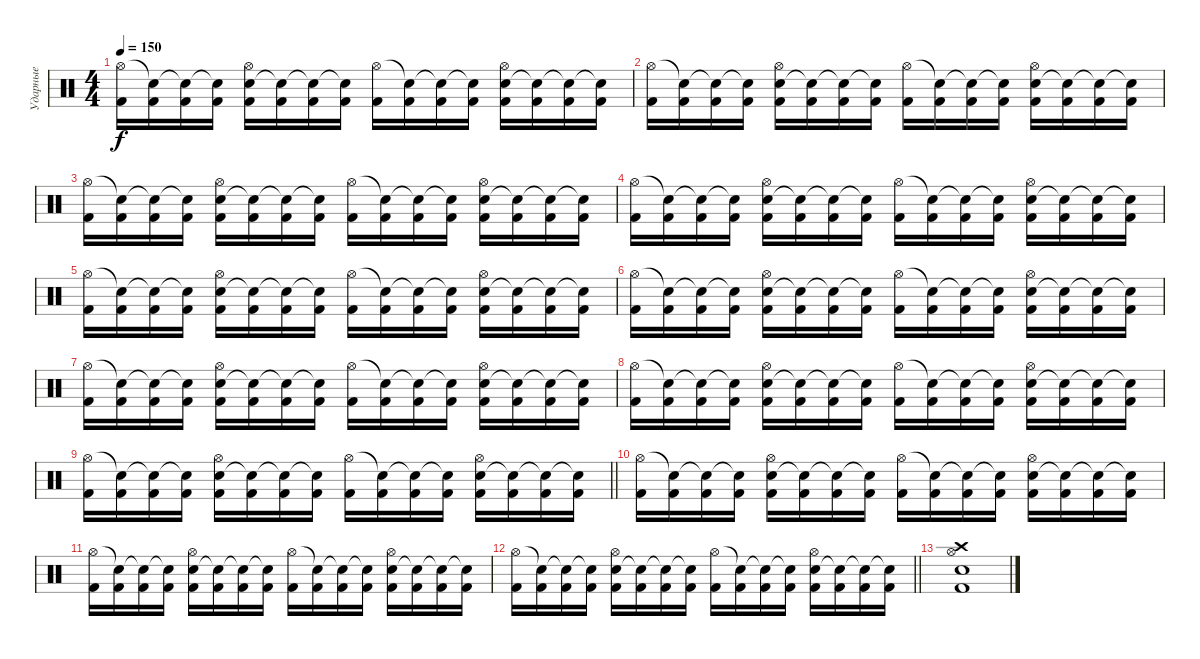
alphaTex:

\track ("Ударные" "Ударные") {instrument percussion}
\staff {score}
\articulation defaults
\ts (4 4)
\tempo 150
\clef neutral
\ks c
("Hi-Hat (open)" "Kick (hit) 2").16{dy f} ("Snare (hit)"{t} "Kick (hit) 2").16 ("Snare (hit)"{t} "Kick (hit) 2").16 ("Snare (hit)"{t} "Kick (hit) 2").16 ("Electric Snare (hit)" "Hi-Hat (open)" "Kick (hit) 2").16 ("Snare (hit)"{t} "Kick (hit) 2").16 ("Snare (hit)"{t} "Kick (hit) 2").16 ("Snare (hit)"{t} "Kick (hit) 2").16 ("Hi-Hat (open)" "Kick (hit) 2").16 ("Snare (hit)"{t} "Kick (hit) 2").16 ("Snare (hit)"{t} "Kick (hit) 2").16 ("Snare (hit)"{t} "Kick (hit) 2").16 ("Electric Snare (hit)" "Hi-Hat (open)" "Kick (hit) 2").16 ("Snare (hit)"{t} "Kick (hit) 2").16 ("Snare (hit)"{t} "Kick (hit) 2").16 ("Snare (hit)"{t} "Kick (hit) 2").16 |
("Hi-Hat (open)" "Kick (hit) 2").16 ("Snare (hit)"{t} "Kick (hit) 2").16 ("Snare (hit)"{t} "Kick (hit) 2").16 ("Snare (hit)"{t} "Kick (hit) 2").16 ("Electric Snare (hit)" "Hi-Hat (open)" "Kick (hit) 2").16 ("Snare (hit)"{t} "Kick (hit) 2").16 ("Snare (hit)"{t} "Kick (hit) 2").16 ("Snare (hit)"{t} "Kick (hit) 2").16 ("Hi-Hat (open)" "Kick (hit) 2").16 ("Snare (hit)"{t} "Kick (hit) 2").16 ("Snare (hit)"{t} "Kick (hit) 2").16 ("Snare (hit)"{t} "Kick (hit) 2").16 ("Electric Snare (hit)" "Hi-Hat (open)" "Kick (hit) 2").16 ("Snare (hit)"{t} "Kick (hit) 2").16 ("Snare (hit)"{t} "Kick (hit) 2").16 ("Snare (hit)"{t} "Kick (hit) 2").16 |
("Hi-Hat (open)" "Kick (hit) 2").16 ("Snare (hit)"{t} "Kick (hit) 2").16 ("Snare (hit)"{t} "Kick (hit) 2").16 ("Snare (hit)"{t} "Kick (hit) 2").16 ("Electric Snare (hit)" "Hi-Hat (open)" "Kick (hit) 2").16 ("Snare (hit)"{t} "Kick (hit) 2").16 ("Snare (hit)"{t} "Kick (hit) 2").16 ("Snare (hit)"{t} "Kick (hit) 2").16 ("Hi-Hat (open)" "Kick (hit) 2").16 ("Snare (hit)"{t} "Kick (hit) 2").16 ("Snare (hit)"{t} "Kick (hit) 2").16 ("Snare (hit)"{t} "Kick (hit) 2").16 ("Electric Snare (hit)" "Hi-Hat (open)" "Kick (hit) 2").16 ("Snare (hit)"{t} "Kick (hit) 2").16 ("Snare (hit)"{t} "Kick (hit) 2").16 ("Snare (hit)"{t} "Kick (hit) 2").16 |
("Hi-Hat (open)" "Kick (hit) 2").16 ("Snare (hit)"{t} "Kick (hit) 2").16 ("Snare (hit)"{t} "Kick (hit) 2").16 ("Snare (hit)"{t} "Kick (hit) 2").16 ("Electric Snare (hit)" "Hi-Hat (open)" "Kick (hit) 2").16 ("Snare (hit)"{t} "Kick (hit) 2").16 ("Snare (hit)"{t} "Kick (hit) 2").16 ("Snare (hit)"{t} "Kick (hit) 2").16 ("Hi-Hat (open)" "Kick (hit) 2").16 ("Snare (hit)"{t} "Kick (hit) 2").16 ("Snare (hit)"{t} "Kick (hit) 2").16 ("Snare (hit)"{t} "Kick (hit) 2").16 ("Electric Snare (hit)" "Hi-Hat (open)" "Kick (hit) 2").16 ("Snare (hit)"{t} "Kick (hit) 2").16 ("Snare (hit)"{t} "Kick (hit) 2").16 ("Snare (hit)"{t} "Kick (hit) 2").16 |
("Hi-Hat (open)" "Kick (hit) 2").16 ("Snare (hit)"{t} "Kick (hit) 2").16 ("Snare (hit)"{t} "Kick (hit) 2").16 ("Snare (hit)"{t} "Kick (hit) 2").16 ("Electric Snare (hit)" "Hi-Hat (open)" "Kick (hit) 2").16 ("Snare (hit)"{t} "Kick (hit) 2").16 ("Snare (hit)"{t} "Kick (hit) 2").16 ("Snare (hit)"{t} "Kick (hit) 2").16 ("Hi-Hat (open)" "Kick (hit) 2").16 ("Snare (hit)"{t} "Kick (hit) 2").16 ("Snare (hit)"{t} "Kick (hit) 2").16 ("Snare (hit)"{t} "Kick (hit) 2").16 ("Electric Snare (hit)" "Hi-Hat (open)" "Kick (hit) 2").16 ("Snare (hit)"{t} "Kick (hit) 2").16 ("Snare (hit)"{t} "Kick (hit) 2").16 ("Snare (hit)"{t} "Kick (hit) 2").16 |
("Hi-Hat (open)" "Kick (hit) 2").16 ("Snare (hit)"{t} "Kick (hit) 2").16 ("Snare (hit)"{t} "Kick (hit) 2").16 ("Snare (hit)"{t} "Kick (hit) 2").16 ("Electric Snare (hit)" "Hi-Hat (open)" "Kick (hit) 2").16 ("Snare (hit)"{t} "Kick (hit) 2").16 ("Snare (hit)"{t} "Kick (hit) 2").16 ("Snare (hit)"{t} "Kick (hit) 2").16 ("Hi-Hat (open)" "Kick (hit) 2").16 ("Snare (hit)"{t} "Kick (hit) 2").16 ("Snare (hit)"{t} "Kick (hit) 2").16 ("Snare (hit)"{t} "Kick (hit) 2").16 ("Electric Snare (hit)" "Hi-Hat (open)" "Kick (hit) 2").16 ("Snare (hit)"{t} "Kick (hit) 2").16 ("Snare (hit)"{t} "Kick (hit) 2").16 ("Snare (hit)"{t} "Kick (hit) 2").16 |
("Hi-Hat (open)" "Kick (hit) 2").16 ("Snare (hit)"{t} "Kick (hit) 2").16 ("Snare (hit)"{t} "Kick (hit) 2").16 ("Snare (hit)"{t} "Kick (hit) 2").16 ("Electric Snare (hit)" "Hi-Hat (open)" "Kick (hit) 2").16 ("Snare (hit)"{t} "Kick (hit) 2").16 ("Snare (hit)"{t} "Kick (hit) 2").16 ("Snare (hit)"{t} "Kick (hit) 2").16 ("Hi-Hat (open)" "Kick (hit) 2").16 ("Snare (hit)"{t} "Kick (hit) 2").16 ("Snare (hit)"{t} "Kick (hit) 2").16 ("Snare (hit)"{t} "Kick (hit) 2").16 ("Electric Snare (hit)" "Hi-Hat (open)" "Kick (hit) 2").16 ("Snare (hit)"{t} "Kick (hit) 2").16 ("Snare (hit)"{t} "Kick (hit) 2").16 ("Snare (hit)"{t} "Kick (hit) 2").16 |
("Hi-Hat (open)" "Kick (hit) 2").16 ("Snare (hit)"{t} "Kick (hit) 2").16 ("Snare (hit)"{t} "Kick (hit) 2").16 ("Snare (hit)"{t} "Kick (hit) 2").16 ("Electric Snare (hit)" "Hi-Hat (open)" "Kick (hit) 2").16 ("Snare (hit)"{t} "Kick (hit) 2").16 ("Snare (hit)"{t} "Kick (hit) 2").16 ("Snare (hit)"{t} "Kick (hit) 2").16 ("Hi-Hat (open)" "Kick (hit) 2").16 ("Snare (hit)"{t} "Kick (hit) 2").16 ("Snare (hit)"{t} "Kick (hit) 2").16 ("Snare (hit)"{t} "Kick (hit) 2").16 ("Electric Snare (hit)" "Hi-Hat (open)" "Kick (hit) 2").16 ("Snare (hit)"{t} "Kick (hit) 2").16 ("Snare (hit)"{t} "Kick (hit) 2").16 ("Snare (hit)"{t} "Kick (hit) 2").16 |
\barLineRight lightlight
("Hi-Hat (open)" "Kick (hit) 2").16 ("Snare (hit)"{t} "Kick (hit) 2").16 ("Snare (hit)"{t} "Kick (hit) 2").16 ("Snare (hit)"{t} "Kick (hit) 2").16 ("Electric Snare (hit)" "Hi-Hat (open)" "Kick (hit) 2").16 ("Snare (hit)"{t} "Kick (hit) 2").16 ("Snare (hit)"{t} "Kick (hit) 2").16 ("Snare (hit)"{t} "Kick (hit) 2").16 ("Hi-Hat (open)" "Kick (hit) 2").16 ("Snare (hit)"{t} "Kick (hit) 2").16 ("Snare (hit)"{t} "Kick (hit) 2").16 ("Snare (hit)"{t} "Kick (hit) 2").16 ("Electric Snare (hit)" "Hi-Hat (open)" "Kick (hit) 2").16 ("Snare (hit)"{t} "Kick (hit) 2").16 ("Snare (hit)"{t} "Kick (hit) 2").16 ("Snare (hit)"{t} "Kick (hit) 2").16 |
("Hi-Hat (open)" "Kick (hit) 2").16 ("Snare (hit)"{t} "Kick (hit) 2").16 ("Snare (hit)"{t} "Kick (hit) 2").16 ("Snare (hit)"{t} "Kick (hit) 2").16 ("Electric Snare (hit)" "Hi-Hat (open)" "Kick (hit) 2").16 ("Snare (hit)"{t} "Kick (hit) 2").16 ("Snare (hit)"{t} "Kick (hit) 2").16 ("Snare (hit)"{t} "Kick (hit) 2").16 ("Hi-Hat (open)" "Kick (hit) 2").16 ("Snare (hit)"{t} "Kick (hit) 2").16 ("Snare (hit)"{t} "Kick (hit) 2").16 ("Snare (hit)"{t} "Kick (hit) 2").16 ("Electric Snare (hit)" "Hi-Hat (open)" "Kick (hit) 2").16 ("Snare (hit)"{t} "Kick (hit) 2").16 ("Snare (hit)"{t} "Kick (hit) 2").16 ("Snare (hit)"{t} "Kick (hit) 2").16 |
("Hi-Hat (open)" "Kick (hit) 2").16 ("Snare (hit)"{t} "Kick (hit) 2").16 ("Snare (hit)"{t} "Kick (hit) 2").16 ("Snare (hit)"{t} "Kick (hit) 2").16 ("Electric Snare (hit)" "Hi-Hat (open)" "Kick (hit) 2").16 ("Snare (hit)"{t} "Kick (hit) 2").16 ("Snare (hit)"{t} "Kick (hit) 2").16 ("Snare (hit)"{t} "Kick (hit) 2").16 ("Hi-Hat (open)" "Kick (hit) 2").16 ("Snare (hit)"{t} "Kick (hit) 2").16 ("Snare (hit)"{t} "Kick (hit) 2").16 ("Snare (hit)"{t} "Kick (hit) 2").16 ("Electric Snare (hit)" "Hi-Hat (open)" "Kick (hit) 2").16 ("Snare (hit)"{t} "Kick (hit) 2").16 ("Snare (hit)"{t} "Kick (hit) 2").16 ("Snare (hit)"{t} "Kick (hit) 2").16 |
\barLineRight lightlight
("Hi-Hat (open)" "Kick (hit) 2").16 ("Snare (hit)"{t} "Kick (hit) 2").16 ("Snare (hit)"{t} "Kick (hit) 2").16 ("Snare (hit)"{t} "Kick (hit) 2").16 ("Electric Snare (hit)" "Hi-Hat (open)" "Kick (hit) 2").16 ("Snare (hit)"{t} "Kick (hit) 2").16 ("Snare (hit)"{t} "Kick (hit) 2").16 ("Snare (hit)"{t} "Kick (hit) 2").16 ("Hi-Hat (open)" "Kick (hit) 2").16 ("Snare (hit)"{t} "Kick (hit) 2").16 ("Snare (hit)"{t} "Kick (hit) 2").16 ("Snare (hit)"{t} "Kick (hit) 2").16 ("Electric Snare (hit)" "Hi-Hat (open)" "Kick (hit) 2").16 ("Snare (hit)"{t} "Kick (hit) 2").16 ("Snare (hit)"{t} "Kick (hit) 2").16 ("Snare (hit)"{t} "Kick (hit) 2").16 |
("Snare (hit) 2" "Crash high (hit)" "Hi-Hat (open)" "Kick (hit) 2").1
